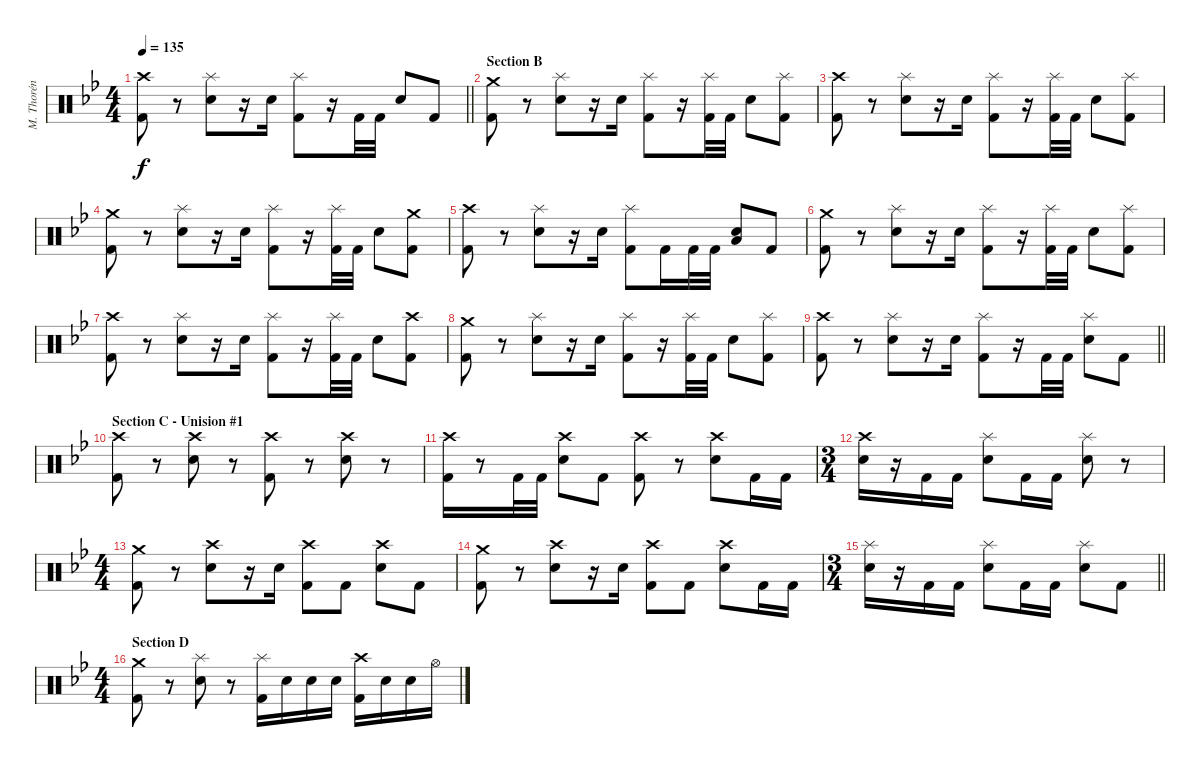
\track ("M. Thorén (Drums)" "M. Thorén ") {instrument percussion}
\staff {score}
\articulation defaults
\ts (4 4)
\tempo 135
\clef neutral
\barLineRight lightlight
\ks gminor
("Crash high (hit)" "Kick (hit) 2").8{dy f} r.8 ("Splash (hit)" "Electric Snare (hit)").8 r.16 "Electric Snare (hit)".16 ("Splash (hit)" "Kick (hit) 2").8 r.16 "Kick (hit) 2".32 "Kick (hit) 2".32 "Electric Snare (hit)".8 "Kick (hit) 2".8 |
\section ("" "Section B")
("Crash medium (hit)" "Kick (hit) 2").8 r.8 ("Splash (hit)" "Electric Snare (hit)").8 r.16 "Electric Snare (hit)".16 ("Splash (hit)" "Kick (hit) 2").8 r.16 ("Splash (hit)" "Kick (hit) 2").32 "Kick (hit) 2".32 "Electric Snare (hit)".8 ("Splash (hit)" "Kick (hit) 2").8 |
("Crash high (hit)" "Kick (hit) 2").8 r.8 ("Splash (hit)" "Electric Snare (hit)").8 r.16 "Electric Snare (hit)".16 ("Splash (hit)" "Kick (hit) 2").8 r.16 ("Splash (hit)" "Kick (hit) 2").32 "Kick (hit) 2".32 "Electric Snare (hit)".8 ("Splash (hit)" "Kick (hit) 2").8 |
("Crash medium (hit)" "Kick (hit) 2").8 r.8 ("Splash (hit)" "Electric Snare (hit)").8 r.16 "Electric Snare (hit)".16 ("Splash (hit)" "Kick (hit) 2").8 r.16 ("Splash (hit)" "Kick (hit) 2").32 "Kick (hit) 2".32 "Electric Snare (hit)".8 ("Crash medium (hit)" "Kick (hit) 2").8 |
("Crash high (hit)" "Kick (hit) 2").8 r.8 ("Splash (hit)" "Electric Snare (hit)").8 r.16 "Electric Snare (hit)".16 ("Splash (hit)" "Kick (hit) 2").8 "Kick (hit) 2".16 "Kick (hit) 2".32 "Kick (hit) 2".32 ("Electric Snare (hit)" "Low Floor Tom (hit)").8 "Kick (hit) 2".8 |
("Crash medium (hit)" "Kick (hit) 2").8 r.8 ("Splash (hit)" "Electric Snare (hit)").8 r.16 "Electric Snare (hit)".16 ("Splash (hit)" "Kick (hit) 2").8 r.16 ("Splash (hit)" "Kick (hit) 2").32 "Kick (hit) 2".32 "Electric Snare (hit)".8 ("Splash (hit)" "Kick (hit) 2").8 |
("Crash high (hit)" "Kick (hit) 2").8 r.8 ("Splash (hit)" "Electric Snare (hit)").8 r.16 "Electric Snare (hit)".16 ("Splash (hit)" "Kick (hit) 2").8 r.16 ("Splash (hit)" "Kick (hit) 2").32 "Kick (hit) 2".32 "Electric Snare (hit)".8 ("Crash high (hit)" "Kick (hit) 2").8 |
("Crash medium (hit)" "Kick (hit) 2").8 r.8 ("Splash (hit)" "Electric Snare (hit)").8 r.16 "Electric Snare (hit)".16 ("Splash (hit)" "Kick (hit) 2").8 r.16 ("Splash (hit)" "Kick (hit) 2").32 "Kick (hit) 2".32 "Electric Snare (hit)".8 ("Splash (hit)" "Kick (hit) 2").8 |
\barLineRight lightlight
("Crash high (hit)" "Kick (hit) 2").8 r.8 ("Splash (hit)" "Electric Snare (hit)").8 r.16 "Electric Snare (hit)".16 ("Splash (hit)" "Kick (hit) 2").8 r.16 "Kick (hit) 2".32 "Kick (hit) 2".32 ("Splash (hit)" "Electric Snare (hit)").8 "Kick (hit) 2".8 |
\section ("" "Section C - Unision #1")
("Crash high (hit)" "Kick (hit) 2").8 r.8 ("Crash high (hit)" "Electric Snare (hit)").8 r.8 ("Crash high (hit)" "Kick (hit) 2").8 r.8 ("Crash high (hit)" "Electric Snare (hit)").8 r.8 |
("Crash high (hit)" "Kick (hit) 2").16 r.8 "Kick (hit) 2".32 "Kick (hit) 2".32 ("Crash high (hit)" "Electric Snare (hit)").8 "Kick (hit) 2".8 ("Crash high (hit)" "Kick (hit) 2").8 r.8 ("Crash high (hit)" "Electric Snare (hit)").8 "Kick (hit) 2".16 "Kick (hit) 2".16 |
\ts (3 4)
("Crash high (hit)" "Electric Snare (hit)").16 r.16 "Kick (hit) 2".16 "Kick (hit) 2".16 ("Splash (hit)" "Electric Snare (hit)").8 "Kick (hit) 2".16 "Kick (hit) 2".16 ("Splash (hit)" "Electric Snare (hit)").8 r.8 |
\ts (4 4)
("Crash medium (hit)" "Kick (hit) 2").8 r.8 ("Crash high (hit)" "Electric Snare (hit)").8 r.16 "Electric Snare (hit)".16 ("Crash high (hit)" "Kick (hit) 2").8 "Kick (hit) 2".8 ("Crash high (hit)" "Electric Snare (hit)").8 "Kick (hit) 2".8 |
("Crash medium (hit)" "Kick (hit) 2").8 r.8 ("Crash high (hit)" "Electric Snare (hit)").8 r.16 "Electric Snare (hit)".16 ("Crash high (hit)" "Kick (hit) 2").8 "Kick (hit) 2".8 ("Crash high (hit)" "Electric Snare (hit)").8 "Kick (hit) 2".16 "Kick (hit) 2".16 |
\ts (3 4)
\barLineRight lightlight
("Splash (hit)" "Electric Snare (hit)").16 r.16 "Kick (hit) 2".16 "Kick (hit) 2".16 ("Splash (hit)" "Electric Snare (hit)").8 "Kick (hit) 2".16 "Kick (hit) 2".16 ("Splash (hit)" "Electric Snare (hit)").8 "Kick (hit) 2".8 |
\ts (4 4)
\section ("" "Section D")
("Crash medium (hit)" "Kick (hit) 2").8 r.8 ("Splash (hit)" "Electric Snare (hit)").8 r.8 ("Splash (hit)" "Kick (hit) 2").16 "Electric Snare (hit)".16 "Electric Snare (hit)".16 "Electric Snare (hit)".16 ("Crash high (hit)" "Kick (hit) 2").16 "Electric Snare (hit)".16 "Electric Snare (hit)".16 "Hi-Hat (open)".16
